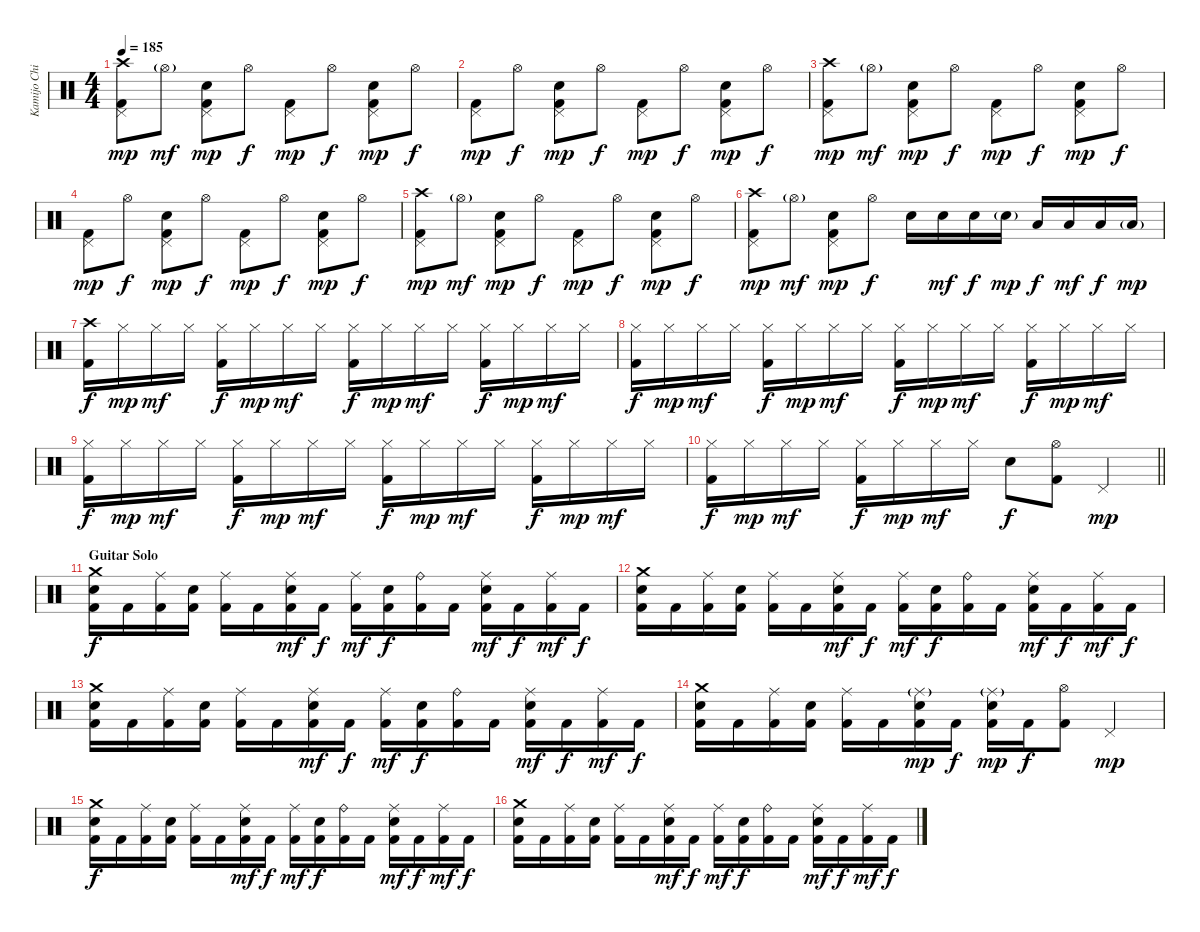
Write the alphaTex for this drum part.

\track ("Kamijo Chihiro" "Kamijo Chi") {instrument percussion}
\staff {score}
\articulation defaults
\ts (4 4)
\tempo 185
\clef neutral
\ks c
("Crash high (hit)" "Pedal Hi-Hat (hit)" "Kick (hit) 2").8{dy mp} "Hi-Hat (open)"{g}.8{dy mf} ("Pedal Hi-Hat (hit)" "Snare (hit) 2" "Kick (hit) 2").8{dy mp} "Hi-Hat (open)".8{dy f} ("Pedal Hi-Hat (hit)" "Kick (hit) 2").8{dy mp} "Hi-Hat (open)".8{dy f} ("Pedal Hi-Hat (hit)" "Snare (hit) 2" "Kick (hit) 2").8{dy mp} "Hi-Hat (open)".8{dy f} |
("Pedal Hi-Hat (hit)" "Kick (hit) 2").8{dy mp} "Hi-Hat (open)".8{dy f} ("Pedal Hi-Hat (hit)" "Snare (hit) 2" "Kick (hit) 2").8{dy mp} "Hi-Hat (open)".8{dy f} ("Pedal Hi-Hat (hit)" "Kick (hit) 2").8{dy mp} "Hi-Hat (open)".8{dy f} ("Pedal Hi-Hat (hit)" "Snare (hit) 2" "Kick (hit) 2").8{dy mp} "Hi-Hat (open)".8{dy f} |
("Crash high (hit)" "Pedal Hi-Hat (hit)" "Kick (hit) 2").8{dy mp} "Hi-Hat (open)"{g}.8{dy mf} ("Pedal Hi-Hat (hit)" "Snare (hit) 2" "Kick (hit) 2").8{dy mp} "Hi-Hat (open)".8{dy f} ("Pedal Hi-Hat (hit)" "Kick (hit) 2").8{dy mp} "Hi-Hat (open)".8{dy f} ("Pedal Hi-Hat (hit)" "Snare (hit) 2" "Kick (hit) 2").8{dy mp} "Hi-Hat (open)".8{dy f} |
("Pedal Hi-Hat (hit)" "Kick (hit) 2").8{dy mp} "Hi-Hat (open)".8{dy f} ("Pedal Hi-Hat (hit)" "Snare (hit) 2" "Kick (hit) 2").8{dy mp} "Hi-Hat (open)".8{dy f} ("Pedal Hi-Hat (hit)" "Kick (hit) 2").8{dy mp} "Hi-Hat (open)".8{dy f} ("Pedal Hi-Hat (hit)" "Snare (hit) 2" "Kick (hit) 2").8{dy mp} "Hi-Hat (open)".8{dy f} |
("Crash high (hit)" "Pedal Hi-Hat (hit)" "Kick (hit) 2").8{dy mp} "Hi-Hat (open)"{g}.8{dy mf} ("Pedal Hi-Hat (hit)" "Snare (hit) 2" "Kick (hit) 2").8{dy mp} "Hi-Hat (open)".8{dy f} ("Pedal Hi-Hat (hit)" "Kick (hit) 2").8{dy mp} "Hi-Hat (open)".8{dy f} ("Pedal Hi-Hat (hit)" "Snare (hit) 2" "Kick (hit) 2").8{dy mp} "Hi-Hat (open)".8{dy f} |
("Crash high (hit)" "Pedal Hi-Hat (hit)" "Kick (hit) 2").8{dy mp} "Hi-Hat (open)"{g}.8{dy mf} ("Pedal Hi-Hat (hit)" "Snare (hit) 2" "Kick (hit) 2").8{dy mp} "Hi-Hat (open)".8{dy f} "Snare (hit) 2".16 "Snare (hit) 2".16{dy mf} "Snare (hit) 2".16{dy f} "Snare (hit) 2"{g}.16{dy mp} "Low Tom (hit)".16{dy f} "Low Tom (hit)".16{dy mf} "Low Tom (hit)".16{dy f} "Low Tom (hit)"{g}.16{dy mp} |
("Crash high (hit)" "Kick (hit) 2").16{dy f} "Hi-Hat (closed)".16{dy mp} "Hi-Hat (closed)".16{dy mf} "Hi-Hat (closed)".16 ("Hi-Hat (closed)" "Kick (hit) 2").16{dy f} "Hi-Hat (closed)".16{dy mp} "Hi-Hat (closed)".16{dy mf} "Hi-Hat (closed)".16 ("Hi-Hat (closed)" "Kick (hit) 2").16{dy f} "Hi-Hat (closed)".16{dy mp} "Hi-Hat (closed)".16{dy mf} "Hi-Hat (closed)".16 ("Hi-Hat (closed)" "Kick (hit) 2").16{dy f} "Hi-Hat (closed)".16{dy mp} "Hi-Hat (closed)".16{dy mf} "Hi-Hat (closed)".16 |
("Hi-Hat (closed)" "Kick (hit) 2").16{dy f} "Hi-Hat (closed)".16{dy mp} "Hi-Hat (closed)".16{dy mf} "Hi-Hat (closed)".16 ("Hi-Hat (closed)" "Kick (hit) 2").16{dy f} "Hi-Hat (closed)".16{dy mp} "Hi-Hat (closed)".16{dy mf} "Hi-Hat (closed)".16 ("Hi-Hat (closed)" "Kick (hit) 2").16{dy f} "Hi-Hat (closed)".16{dy mp} "Hi-Hat (closed)".16{dy mf} "Hi-Hat (closed)".16 ("Hi-Hat (closed)" "Kick (hit) 2").16{dy f} "Hi-Hat (closed)".16{dy mp} "Hi-Hat (closed)".16{dy mf} "Hi-Hat (closed)".16 |
("Hi-Hat (closed)" "Kick (hit) 2").16{dy f} "Hi-Hat (closed)".16{dy mp} "Hi-Hat (closed)".16{dy mf} "Hi-Hat (closed)".16 ("Hi-Hat (closed)" "Kick (hit) 2").16{dy f} "Hi-Hat (closed)".16{dy mp} "Hi-Hat (closed)".16{dy mf} "Hi-Hat (closed)".16 ("Hi-Hat (closed)" "Kick (hit) 2").16{dy f} "Hi-Hat (closed)".16{dy mp} "Hi-Hat (closed)".16{dy mf} "Hi-Hat (closed)".16 ("Hi-Hat (closed)" "Kick (hit) 2").16{dy f} "Hi-Hat (closed)".16{dy mp} "Hi-Hat (closed)".16{dy mf} "Hi-Hat (closed)".16 |
\barLineRight lightlight
("Hi-Hat (closed)" "Kick (hit) 2").16{dy f} "Hi-Hat (closed)".16{dy mp} "Hi-Hat (closed)".16{dy mf} "Hi-Hat (closed)".16 ("Hi-Hat (closed)" "Kick (hit) 2").16{dy f} "Hi-Hat (closed)".16{dy mp} "Hi-Hat (closed)".16{dy mf} "Hi-Hat (closed)".16 "Snare (hit) 2".8{dy f} ("Hi-Hat (open)" "Kick (hit) 2").8 "Pedal Hi-Hat (hit)".4{dy mp} |
\section ("" "Guitar Solo")
("Crash medium (hit)" "Snare (hit) 2" "Kick (hit) 2").16{dy f} "Kick (hit) 2".16 ("Ride (middle)" "Kick (hit) 2").16 ("Snare (hit) 2" "Kick (hit) 2").16 ("Ride (middle)" "Kick (hit) 2").16 "Kick (hit) 2".16 ("Ride (middle)" "Snare (hit) 2" "Kick (hit) 2").16{dy mf} "Kick (hit) 2".16{dy f} ("Ride (middle)" "Kick (hit) 2").16{dy mf} ("Snare (hit) 2" "Kick (hit) 2").16{dy f} ("Ride (bell)" "Kick (hit) 2").16 "Kick (hit) 2".16 ("Ride (middle)" "Snare (hit) 2" "Kick (hit) 2").16{dy mf} "Kick (hit) 2".16{dy f} ("Ride (middle)" "Kick (hit) 2").16{dy mf} "Kick (hit) 2".16{dy f} |
("Crash medium (hit)" "Snare (hit) 2" "Kick (hit) 2").16 "Kick (hit) 2".16 ("Ride (middle)" "Kick (hit) 2").16 ("Snare (hit) 2" "Kick (hit) 2").16 ("Ride (middle)" "Kick (hit) 2").16 "Kick (hit) 2".16 ("Ride (middle)" "Snare (hit) 2" "Kick (hit) 2").16{dy mf} "Kick (hit) 2".16{dy f} ("Ride (middle)" "Kick (hit) 2").16{dy mf} ("Snare (hit) 2" "Kick (hit) 2").16{dy f} ("Ride (bell)" "Kick (hit) 2").16 "Kick (hit) 2".16 ("Ride (middle)" "Snare (hit) 2" "Kick (hit) 2").16{dy mf} "Kick (hit) 2".16{dy f} ("Ride (middle)" "Kick (hit) 2").16{dy mf} "Kick (hit) 2".16{dy f} |
("Crash medium (hit)" "Snare (hit) 2" "Kick (hit) 2").16 "Kick (hit) 2".16 ("Ride (middle)" "Kick (hit) 2").16 ("Snare (hit) 2" "Kick (hit) 2").16 ("Ride (middle)" "Kick (hit) 2").16 "Kick (hit) 2".16 ("Ride (middle)" "Snare (hit) 2" "Kick (hit) 2").16{dy mf} "Kick (hit) 2".16{dy f} ("Ride (middle)" "Kick (hit) 2").16{dy mf} ("Snare (hit) 2" "Kick (hit) 2").16{dy f} ("Ride (bell)" "Kick (hit) 2").16 "Kick (hit) 2".16 ("Ride (middle)" "Snare (hit) 2" "Kick (hit) 2").16{dy mf} "Kick (hit) 2".16{dy f} ("Ride (middle)" "Kick (hit) 2").16{dy mf} "Kick (hit) 2".16{dy f} |
("Crash medium (hit)" "Snare (hit) 2" "Kick (hit) 2").16 "Kick (hit) 2".16 ("Ride (middle)" "Kick (hit) 2").16 ("Snare (hit) 2" "Kick (hit) 2").16 ("Ride (middle)" "Kick (hit) 2").16 "Kick (hit) 2".16 ("Ride (middle)"{g} "Snare (hit) 2" "Kick (hit) 2").16{dy mp} "Kick (hit) 2".16{dy f} ("Ride (middle)"{g} "Snare (hit) 2" "Kick (hit) 2").16{dy mp} "Kick (hit) 2".16{dy f} ("Hi-Hat (open)" "Kick (hit) 2").8 "Pedal Hi-Hat (hit)".4{dy mp} |
("Crash medium (hit)" "Snare (hit) 2" "Kick (hit) 2").16{dy f} "Kick (hit) 2".16 ("Ride (middle)" "Kick (hit) 2").16 ("Snare (hit) 2" "Kick (hit) 2").16 ("Ride (middle)" "Kick (hit) 2").16 "Kick (hit) 2".16 ("Ride (middle)" "Snare (hit) 2" "Kick (hit) 2").16{dy mf} "Kick (hit) 2".16{dy f} ("Ride (middle)" "Kick (hit) 2").16{dy mf} ("Snare (hit) 2" "Kick (hit) 2").16{dy f} ("Ride (bell)" "Kick (hit) 2").16 "Kick (hit) 2".16 ("Ride (middle)" "Snare (hit) 2" "Kick (hit) 2").16{dy mf} "Kick (hit) 2".16{dy f} ("Ride (middle)" "Kick (hit) 2").16{dy mf} "Kick (hit) 2".16{dy f} |
("Crash medium (hit)" "Snare (hit) 2" "Kick (hit) 2").16 "Kick (hit) 2".16 ("Ride (middle)" "Kick (hit) 2").16 ("Snare (hit) 2" "Kick (hit) 2").16 ("Ride (middle)" "Kick (hit) 2").16 "Kick (hit) 2".16 ("Ride (middle)" "Snare (hit) 2" "Kick (hit) 2").16{dy mf} "Kick (hit) 2".16{dy f} ("Ride (middle)" "Kick (hit) 2").16{dy mf} ("Snare (hit) 2" "Kick (hit) 2").16{dy f} ("Ride (bell)" "Kick (hit) 2").16 "Kick (hit) 2".16 ("Ride (middle)" "Snare (hit) 2" "Kick (hit) 2").16{dy mf} "Kick (hit) 2".16{dy f} ("Ride (middle)" "Kick (hit) 2").16{dy mf} "Kick (hit) 2".16{dy f}
